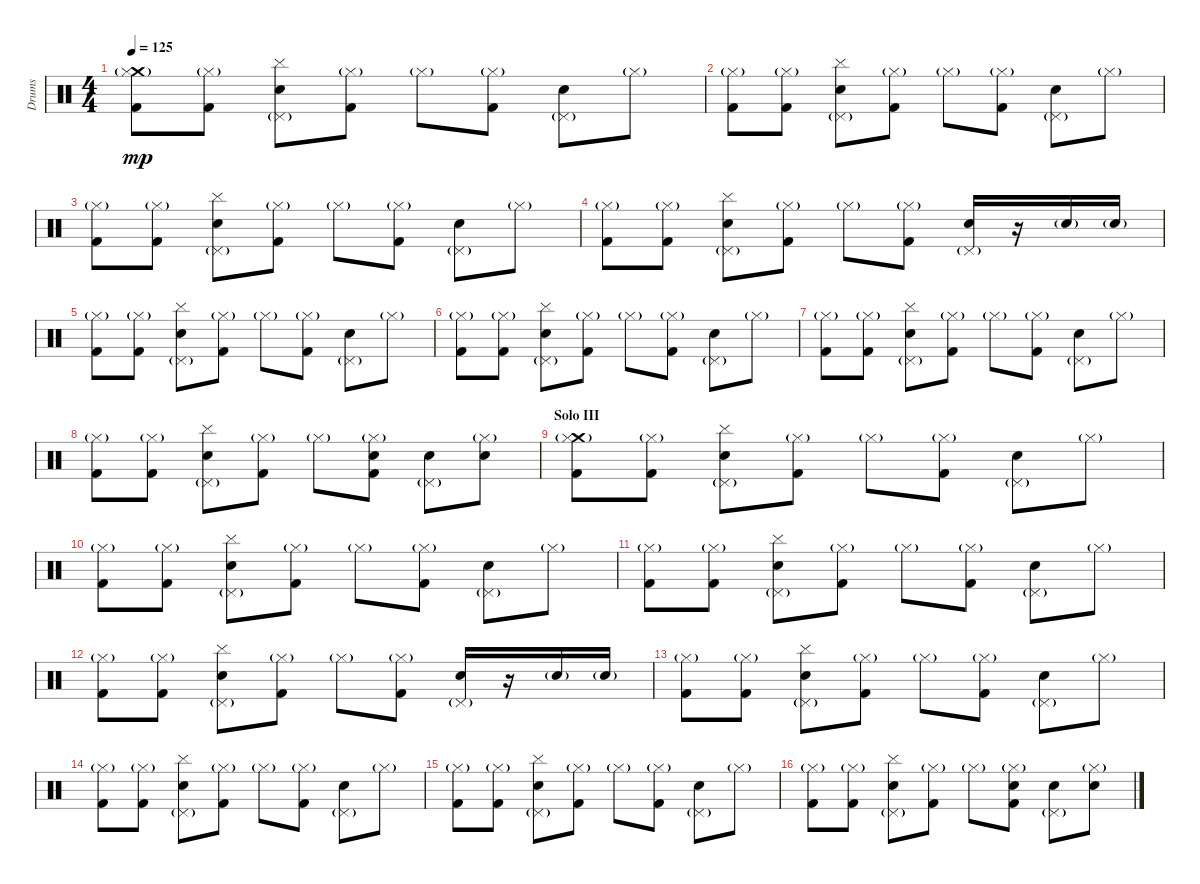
\track ("Drums" "Drums") {instrument percussion}
\staff {score}
\articulation defaults
\ts (4 4)
\tempo 125
\clef neutral
\ks c
("Crash medium (hit)" "Hi-Hat (closed)"{g} "Kick (hit) 2").8{dy mp} ("Hi-Hat (closed)"{g} "Kick (hit) 2").8 ("Electric Snare (hit)" "Pedal Hi-Hat (hit)"{g} "Cymbal (hit)").8 ("Hi-Hat (closed)"{g} "Kick (hit) 2").8 "Hi-Hat (closed)"{g}.8 ("Hi-Hat (closed)"{g} "Kick (hit) 2").8 ("Electric Snare (hit)" "Pedal Hi-Hat (hit)"{g}).8 "Hi-Hat (closed)"{g}.8 |
("Hi-Hat (closed)"{g} "Kick (hit) 2").8 ("Hi-Hat (closed)"{g} "Kick (hit) 2").8 ("Electric Snare (hit)" "Pedal Hi-Hat (hit)"{g} "Cymbal (hit)").8 ("Hi-Hat (closed)"{g} "Kick (hit) 2").8 "Hi-Hat (closed)"{g}.8 ("Hi-Hat (closed)"{g} "Kick (hit) 2").8 ("Electric Snare (hit)" "Pedal Hi-Hat (hit)"{g}).8 "Hi-Hat (closed)"{g}.8 |
("Hi-Hat (closed)"{g} "Kick (hit) 2").8 ("Hi-Hat (closed)"{g} "Kick (hit) 2").8 ("Electric Snare (hit)" "Pedal Hi-Hat (hit)"{g} "Cymbal (hit)").8 ("Hi-Hat (closed)"{g} "Kick (hit) 2").8 "Hi-Hat (closed)"{g}.8 ("Hi-Hat (closed)"{g} "Kick (hit) 2").8 ("Electric Snare (hit)" "Pedal Hi-Hat (hit)"{g}).8 "Hi-Hat (closed)"{g}.8 |
("Hi-Hat (closed)"{g} "Kick (hit) 2").8 ("Hi-Hat (closed)"{g} "Kick (hit) 2").8 ("Electric Snare (hit)" "Pedal Hi-Hat (hit)"{g} "Cymbal (hit)").8 ("Hi-Hat (closed)"{g} "Kick (hit) 2").8 "Hi-Hat (closed)"{g}.8 ("Hi-Hat (closed)"{g} "Kick (hit) 2").8 ("Electric Snare (hit)" "Pedal Hi-Hat (hit)"{g}).16 r.16 "Electric Snare (hit)"{g}.16 "Electric Snare (hit)"{g}.16 |
("Hi-Hat (closed)"{g} "Kick (hit) 2").8 ("Hi-Hat (closed)"{g} "Kick (hit) 2").8 ("Electric Snare (hit)" "Pedal Hi-Hat (hit)"{g} "Cymbal (hit)").8 ("Hi-Hat (closed)"{g} "Kick (hit) 2").8 "Hi-Hat (closed)"{g}.8 ("Hi-Hat (closed)"{g} "Kick (hit) 2").8 ("Electric Snare (hit)" "Pedal Hi-Hat (hit)"{g}).8 "Hi-Hat (closed)"{g}.8 |
("Hi-Hat (closed)"{g} "Kick (hit) 2").8 ("Hi-Hat (closed)"{g} "Kick (hit) 2").8 ("Electric Snare (hit)" "Pedal Hi-Hat (hit)"{g} "Cymbal (hit)").8 ("Hi-Hat (closed)"{g} "Kick (hit) 2").8 "Hi-Hat (closed)"{g}.8 ("Hi-Hat (closed)"{g} "Kick (hit) 2").8 ("Electric Snare (hit)" "Pedal Hi-Hat (hit)"{g}).8 "Hi-Hat (closed)"{g}.8 |
("Hi-Hat (closed)"{g} "Kick (hit) 2").8 ("Hi-Hat (closed)"{g} "Kick (hit) 2").8 ("Electric Snare (hit)" "Pedal Hi-Hat (hit)"{g} "Cymbal (hit)").8 ("Hi-Hat (closed)"{g} "Kick (hit) 2").8 "Hi-Hat (closed)"{g}.8 ("Hi-Hat (closed)"{g} "Kick (hit) 2").8 ("Electric Snare (hit)" "Pedal Hi-Hat (hit)"{g}).8 "Hi-Hat (closed)"{g}.8 |
("Hi-Hat (closed)"{g} "Kick (hit) 2").8 ("Hi-Hat (closed)"{g} "Kick (hit) 2").8 ("Electric Snare (hit)" "Pedal Hi-Hat (hit)"{g} "Cymbal (hit)").8 ("Hi-Hat (closed)"{g} "Kick (hit) 2").8 "Hi-Hat (closed)"{g}.8 ("Electric Snare (hit)" "Hi-Hat (closed)"{g} "Kick (hit) 2").8 ("Electric Snare (hit)" "Pedal Hi-Hat (hit)"{g}).8 ("Electric Snare (hit)" "Hi-Hat (closed)"{g}).8 |
\section ("" "Solo III")
("Crash medium (hit)" "Hi-Hat (closed)"{g} "Kick (hit) 2").8 ("Hi-Hat (closed)"{g} "Kick (hit) 2").8 ("Electric Snare (hit)" "Pedal Hi-Hat (hit)"{g} "Cymbal (hit)").8 ("Hi-Hat (closed)"{g} "Kick (hit) 2").8 "Hi-Hat (closed)"{g}.8 ("Hi-Hat (closed)"{g} "Kick (hit) 2").8 ("Electric Snare (hit)" "Pedal Hi-Hat (hit)"{g}).8 "Hi-Hat (closed)"{g}.8 |
("Hi-Hat (closed)"{g} "Kick (hit) 2").8 ("Hi-Hat (closed)"{g} "Kick (hit) 2").8 ("Electric Snare (hit)" "Pedal Hi-Hat (hit)"{g} "Cymbal (hit)").8 ("Hi-Hat (closed)"{g} "Kick (hit) 2").8 "Hi-Hat (closed)"{g}.8 ("Hi-Hat (closed)"{g} "Kick (hit) 2").8 ("Electric Snare (hit)" "Pedal Hi-Hat (hit)"{g}).8 "Hi-Hat (closed)"{g}.8 |
("Hi-Hat (closed)"{g} "Kick (hit) 2").8 ("Hi-Hat (closed)"{g} "Kick (hit) 2").8 ("Electric Snare (hit)" "Pedal Hi-Hat (hit)"{g} "Cymbal (hit)").8 ("Hi-Hat (closed)"{g} "Kick (hit) 2").8 "Hi-Hat (closed)"{g}.8 ("Hi-Hat (closed)"{g} "Kick (hit) 2").8 ("Electric Snare (hit)" "Pedal Hi-Hat (hit)"{g}).8 "Hi-Hat (closed)"{g}.8 |
("Hi-Hat (closed)"{g} "Kick (hit) 2").8 ("Hi-Hat (closed)"{g} "Kick (hit) 2").8 ("Electric Snare (hit)" "Pedal Hi-Hat (hit)"{g} "Cymbal (hit)").8 ("Hi-Hat (closed)"{g} "Kick (hit) 2").8 "Hi-Hat (closed)"{g}.8 ("Hi-Hat (closed)"{g} "Kick (hit) 2").8 ("Electric Snare (hit)" "Pedal Hi-Hat (hit)"{g}).16 r.16 "Electric Snare (hit)"{g}.16 "Electric Snare (hit)"{g}.16 |
("Hi-Hat (closed)"{g} "Kick (hit) 2").8 ("Hi-Hat (closed)"{g} "Kick (hit) 2").8 ("Electric Snare (hit)" "Pedal Hi-Hat (hit)"{g} "Cymbal (hit)").8 ("Hi-Hat (closed)"{g} "Kick (hit) 2").8 "Hi-Hat (closed)"{g}.8 ("Hi-Hat (closed)"{g} "Kick (hit) 2").8 ("Electric Snare (hit)" "Pedal Hi-Hat (hit)"{g}).8 "Hi-Hat (closed)"{g}.8 |
("Hi-Hat (closed)"{g} "Kick (hit) 2").8 ("Hi-Hat (closed)"{g} "Kick (hit) 2").8 ("Electric Snare (hit)" "Pedal Hi-Hat (hit)"{g} "Cymbal (hit)").8 ("Hi-Hat (closed)"{g} "Kick (hit) 2").8 "Hi-Hat (closed)"{g}.8 ("Hi-Hat (closed)"{g} "Kick (hit) 2").8 ("Electric Snare (hit)" "Pedal Hi-Hat (hit)"{g}).8 "Hi-Hat (closed)"{g}.8 |
("Hi-Hat (closed)"{g} "Kick (hit) 2").8 ("Hi-Hat (closed)"{g} "Kick (hit) 2").8 ("Electric Snare (hit)" "Pedal Hi-Hat (hit)"{g} "Cymbal (hit)").8 ("Hi-Hat (closed)"{g} "Kick (hit) 2").8 "Hi-Hat (closed)"{g}.8 ("Hi-Hat (closed)"{g} "Kick (hit) 2").8 ("Electric Snare (hit)" "Pedal Hi-Hat (hit)"{g}).8 "Hi-Hat (closed)"{g}.8 |
("Hi-Hat (closed)"{g} "Kick (hit) 2").8 ("Hi-Hat (closed)"{g} "Kick (hit) 2").8 ("Electric Snare (hit)" "Pedal Hi-Hat (hit)"{g} "Cymbal (hit)").8 ("Hi-Hat (closed)"{g} "Kick (hit) 2").8 "Hi-Hat (closed)"{g}.8 ("Electric Snare (hit)" "Hi-Hat (closed)"{g} "Kick (hit) 2").8 ("Electric Snare (hit)" "Pedal Hi-Hat (hit)"{g}).8 ("Electric Snare (hit)" "Hi-Hat (closed)"{g}).8
